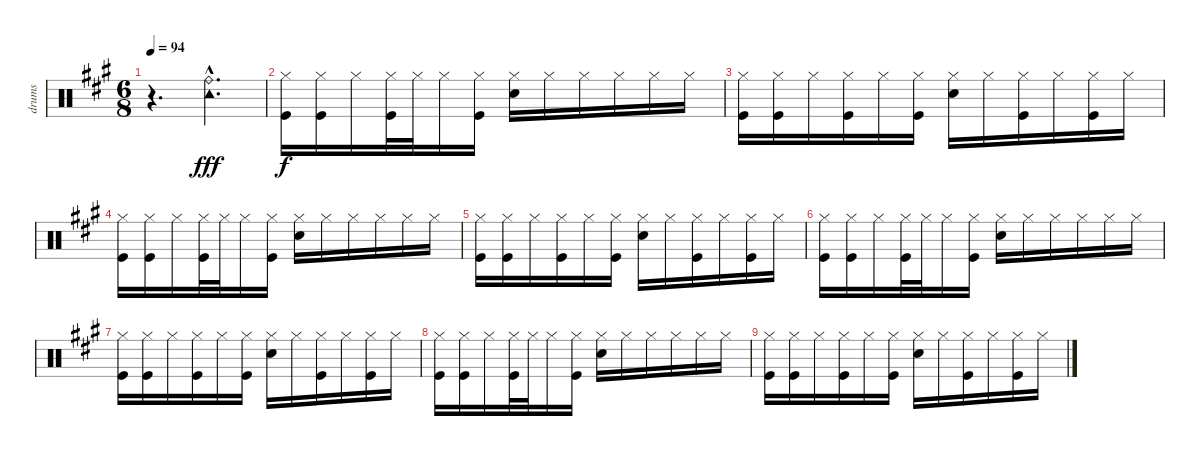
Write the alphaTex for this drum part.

\track ("drums" "drums") {instrument percussion}
\staff {score}
\articulation defaults
\ts (6 8)
\tempo 94
\clef neutral
\ks a
r.4{d dy fff} ("Tambourine (hit)"{hac} "Ride (bell)").4{d} |
("Hi-Hat (closed)" "Kick (hit)").16{dy f} ("Hi-Hat (closed)" "Kick (hit)").16 "Hi-Hat (closed)".16 ("Hi-Hat (closed)" "Kick (hit)").32 "Hi-Hat (closed)".32 "Hi-Hat (closed)".16 ("Hi-Hat (closed)" "Kick (hit)").16 ("Hi-Hat (closed)" "Snare (hit) 2").16 "Hi-Hat (closed)".16 "Hi-Hat (closed)".16 "Hi-Hat (closed)".16 "Hi-Hat (closed)".16 "Hi-Hat (closed)".16 |
("Hi-Hat (closed)" "Kick (hit)").16 ("Hi-Hat (closed)" "Kick (hit)").16 "Hi-Hat (closed)".16 ("Hi-Hat (closed)" "Kick (hit)").16 "Hi-Hat (closed)".16 ("Hi-Hat (closed)" "Kick (hit)").16 ("Hi-Hat (closed)" "Snare (hit) 2").16 "Hi-Hat (closed)".16 ("Hi-Hat (closed)" "Kick (hit)").16 "Hi-Hat (closed)".16 ("Hi-Hat (closed)" "Kick (hit)").16 "Hi-Hat (closed)".16 |
("Hi-Hat (closed)" "Kick (hit)").16 ("Hi-Hat (closed)" "Kick (hit)").16 "Hi-Hat (closed)".16 ("Hi-Hat (closed)" "Kick (hit)").32 "Hi-Hat (closed)".32 "Hi-Hat (closed)".16 ("Hi-Hat (closed)" "Kick (hit)").16 ("Hi-Hat (closed)" "Snare (hit) 2").16 "Hi-Hat (closed)".16 "Hi-Hat (closed)".16 "Hi-Hat (closed)".16 "Hi-Hat (closed)".16 "Hi-Hat (closed)".16 |
("Hi-Hat (closed)" "Kick (hit)").16 ("Hi-Hat (closed)" "Kick (hit)").16 "Hi-Hat (closed)".16 ("Hi-Hat (closed)" "Kick (hit)").16 "Hi-Hat (closed)".16 ("Hi-Hat (closed)" "Kick (hit)").16 ("Hi-Hat (closed)" "Snare (hit) 2").16 "Hi-Hat (closed)".16 ("Hi-Hat (closed)" "Kick (hit)").16 "Hi-Hat (closed)".16 ("Hi-Hat (closed)" "Kick (hit)").16 "Hi-Hat (closed)".16 |
("Hi-Hat (closed)" "Kick (hit)").16 ("Hi-Hat (closed)" "Kick (hit)").16 "Hi-Hat (closed)".16 ("Hi-Hat (closed)" "Kick (hit)").32 "Hi-Hat (closed)".32 "Hi-Hat (closed)".16 ("Hi-Hat (closed)" "Kick (hit)").16 ("Hi-Hat (closed)" "Snare (hit) 2").16 "Hi-Hat (closed)".16 "Hi-Hat (closed)".16 "Hi-Hat (closed)".16 "Hi-Hat (closed)".16 "Hi-Hat (closed)".16 |
("Hi-Hat (closed)" "Kick (hit)").16 ("Hi-Hat (closed)" "Kick (hit)").16 "Hi-Hat (closed)".16 ("Hi-Hat (closed)" "Kick (hit)").16 "Hi-Hat (closed)".16 ("Hi-Hat (closed)" "Kick (hit)").16 ("Hi-Hat (closed)" "Snare (hit) 2").16 "Hi-Hat (closed)".16 ("Hi-Hat (closed)" "Kick (hit)").16 "Hi-Hat (closed)".16 ("Hi-Hat (closed)" "Kick (hit)").16 "Hi-Hat (closed)".16 |
("Hi-Hat (closed)" "Kick (hit)").16 ("Hi-Hat (closed)" "Kick (hit)").16 "Hi-Hat (closed)".16 ("Hi-Hat (closed)" "Kick (hit)").32 "Hi-Hat (closed)".32 "Hi-Hat (closed)".16 ("Hi-Hat (closed)" "Kick (hit)").16 ("Hi-Hat (closed)" "Snare (hit) 2").16 "Hi-Hat (closed)".16 "Hi-Hat (closed)".16 "Hi-Hat (closed)".16 "Hi-Hat (closed)".16 "Hi-Hat (closed)".16 |
("Hi-Hat (closed)" "Kick (hit)").16 ("Hi-Hat (closed)" "Kick (hit)").16 "Hi-Hat (closed)".16 ("Hi-Hat (closed)" "Kick (hit)").16 "Hi-Hat (closed)".16 ("Hi-Hat (closed)" "Kick (hit)").16 ("Hi-Hat (closed)" "Snare (hit) 2").16 "Hi-Hat (closed)".16 ("Hi-Hat (closed)" "Kick (hit)").16 "Hi-Hat (closed)".16 ("Hi-Hat (closed)" "Kick (hit)").16 "Hi-Hat (closed)".16
